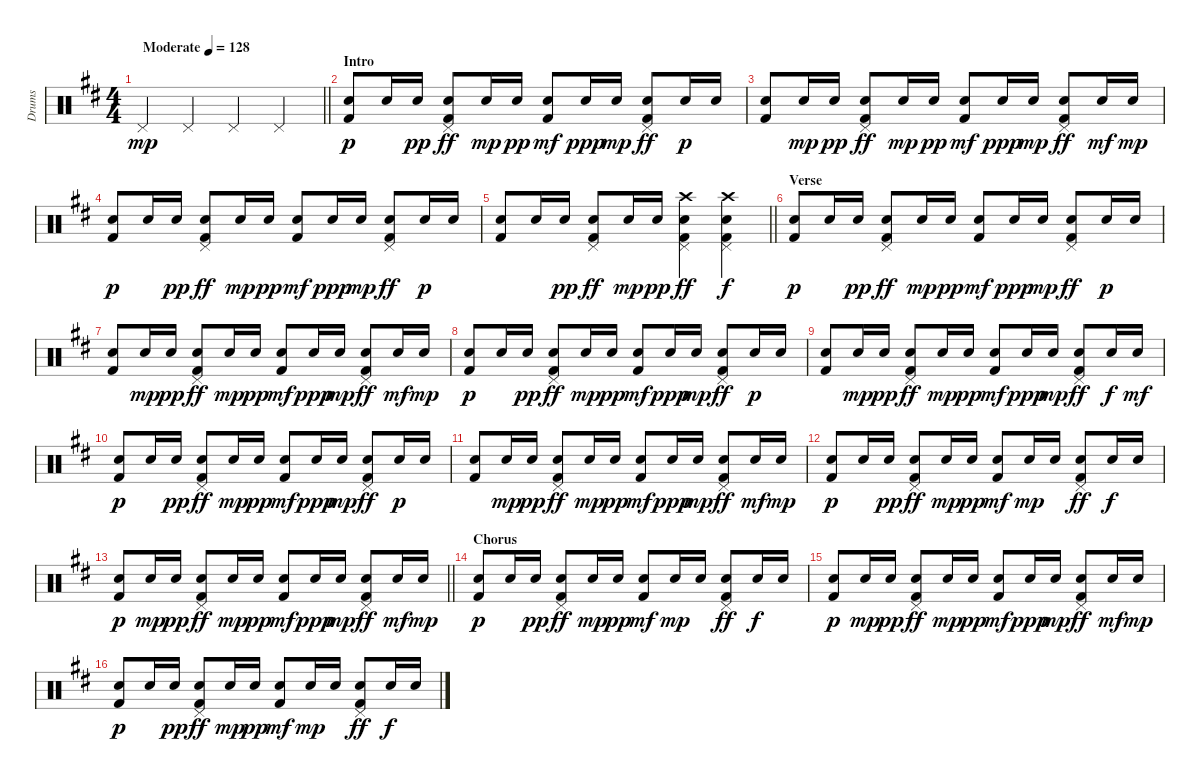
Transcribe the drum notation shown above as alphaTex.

\track ("Drums" "Drums") {instrument percussion}
\staff {score}
\articulation defaults
\ts (4 4)
\tempo (128 "Moderate")
\clef neutral
\barLineRight lightlight
\ks d "Pedal Hi-Hat (hit)".4{dy mp} "Pedal Hi-Hat (hit)".4 "Pedal Hi-Hat (hit)".4 "Pedal Hi-Hat (hit)".4
|
\section ("" "Intro")
("Kick (hit) 2" "Snare (hit) 2").8{dy p} "Snare (hit) 2".16 "Snare (hit) 2".16{dy pp} ("Kick (hit) 2" "Snare (hit) 2" "Pedal Hi-Hat (hit)").8{dy ff} "Snare (hit) 2".16{dy mp} "Snare (hit) 2".16{dy pp} ("Kick (hit) 2" "Snare (hit) 2").8{dy mf} "Snare (hit) 2".16{dy ppp} "Snare (hit) 2".16{dy mp} ("Kick (hit) 2" "Snare (hit) 2" "Pedal Hi-Hat (hit)").8{dy ff} "Snare (hit) 2".16{dy p} "Snare (hit) 2".16 |
("Kick (hit) 2" "Snare (hit) 2").8 "Snare (hit) 2".16{dy mp} "Snare (hit) 2".16{dy pp} ("Kick (hit) 2" "Snare (hit) 2" "Pedal Hi-Hat (hit)").8{dy ff} "Snare (hit) 2".16{dy mp} "Snare (hit) 2".16{dy pp} ("Kick (hit) 2" "Snare (hit) 2").8{dy mf} "Snare (hit) 2".16{dy ppp} "Snare (hit) 2".16{dy mp} ("Kick (hit) 2" "Snare (hit) 2" "Pedal Hi-Hat (hit)").8{dy ff} "Snare (hit) 2".16{dy mf} "Snare (hit) 2".16{dy mp} |
("Kick (hit) 2" "Snare (hit) 2").8{dy p} "Snare (hit) 2".16 "Snare (hit) 2".16{dy pp} ("Kick (hit) 2" "Snare (hit) 2" "Pedal Hi-Hat (hit)").8{dy ff} "Snare (hit) 2".16{dy mp} "Snare (hit) 2".16{dy pp} ("Kick (hit) 2" "Snare (hit) 2").8{dy mf} "Snare (hit) 2".16{dy ppp} "Snare (hit) 2".16{dy mp} ("Kick (hit) 2" "Snare (hit) 2" "Pedal Hi-Hat (hit)").8{dy ff} "Snare (hit) 2".16{dy p} "Snare (hit) 2".16 |
\barLineRight lightlight
("Kick (hit) 2" "Snare (hit) 2").8 "Snare (hit) 2".16 "Snare (hit) 2".16{dy pp} ("Kick (hit) 2" "Snare (hit) 2" "Pedal Hi-Hat (hit)").8{dy ff} "Snare (hit) 2".16{dy mp} "Snare (hit) 2".16{dy pp} ("Kick (hit) 2" "Snare (hit) 2" "Pedal Hi-Hat (hit)" "Crash high (hit)").4{dy ff} ("Kick (hit) 2" "Snare (hit) 2" "Pedal Hi-Hat (hit)" "Crash high (hit)").4{dy f} |
\section ("" "Verse")
("Kick (hit) 2" "Snare (hit) 2").8{dy p} "Snare (hit) 2".16 "Snare (hit) 2".16{dy pp} ("Kick (hit) 2" "Snare (hit) 2" "Pedal Hi-Hat (hit)").8{dy ff} "Snare (hit) 2".16{dy mp} "Snare (hit) 2".16{dy pp} ("Kick (hit) 2" "Snare (hit) 2").8{dy mf} "Snare (hit) 2".16{dy ppp} "Snare (hit) 2".16{dy mp} ("Kick (hit) 2" "Snare (hit) 2" "Pedal Hi-Hat (hit)").8{dy ff} "Snare (hit) 2".16{dy p} "Snare (hit) 2".16 |
("Kick (hit) 2" "Snare (hit) 2").8 "Snare (hit) 2".16{dy mp} "Snare (hit) 2".16{dy pp} ("Kick (hit) 2" "Snare (hit) 2" "Pedal Hi-Hat (hit)").8{dy ff} "Snare (hit) 2".16{dy mp} "Snare (hit) 2".16{dy pp} ("Kick (hit) 2" "Snare (hit) 2").8{dy mf} "Snare (hit) 2".16{dy ppp} "Snare (hit) 2".16{dy mp} ("Kick (hit) 2" "Snare (hit) 2" "Pedal Hi-Hat (hit)").8{dy ff} "Snare (hit) 2".16{dy mf} "Snare (hit) 2".16{dy mp} |
("Kick (hit) 2" "Snare (hit) 2").8{dy p} "Snare (hit) 2".16 "Snare (hit) 2".16{dy pp} ("Kick (hit) 2" "Snare (hit) 2" "Pedal Hi-Hat (hit)").8{dy ff} "Snare (hit) 2".16{dy mp} "Snare (hit) 2".16{dy pp} ("Kick (hit) 2" "Snare (hit) 2").8{dy mf} "Snare (hit) 2".16{dy ppp} "Snare (hit) 2".16{dy mp} ("Kick (hit) 2" "Snare (hit) 2" "Pedal Hi-Hat (hit)").8{dy ff} "Snare (hit) 2".16{dy p} "Snare (hit) 2".16 |
("Kick (hit) 2" "Snare (hit) 2").8 "Snare (hit) 2".16{dy mp} "Snare (hit) 2".16{dy pp} ("Kick (hit) 2" "Snare (hit) 2" "Pedal Hi-Hat (hit)").8{dy ff} "Snare (hit) 2".16{dy mp} "Snare (hit) 2".16{dy pp} ("Kick (hit) 2" "Snare (hit) 2").8{dy mf} "Snare (hit) 2".16{dy ppp} "Snare (hit) 2".16{dy mp} ("Kick (hit) 2" "Snare (hit) 2" "Pedal Hi-Hat (hit)").8{dy ff} "Snare (hit) 2".16{dy f} "Snare (hit) 2".16{dy mf} |
("Kick (hit) 2" "Snare (hit) 2").8{dy p} "Snare (hit) 2".16 "Snare (hit) 2".16{dy pp} ("Kick (hit) 2" "Snare (hit) 2" "Pedal Hi-Hat (hit)").8{dy ff} "Snare (hit) 2".16{dy mp} "Snare (hit) 2".16{dy pp} ("Kick (hit) 2" "Snare (hit) 2").8{dy mf} "Snare (hit) 2".16{dy ppp} "Snare (hit) 2".16{dy mp} ("Kick (hit) 2" "Snare (hit) 2" "Pedal Hi-Hat (hit)").8{dy ff} "Snare (hit) 2".16{dy p} "Snare (hit) 2".16 |
("Kick (hit) 2" "Snare (hit) 2").8 "Snare (hit) 2".16{dy mp} "Snare (hit) 2".16{dy pp} ("Kick (hit) 2" "Snare (hit) 2" "Pedal Hi-Hat (hit)").8{dy ff} "Snare (hit) 2".16{dy mp} "Snare (hit) 2".16{dy pp} ("Kick (hit) 2" "Snare (hit) 2").8{dy mf} "Snare (hit) 2".16{dy ppp} "Snare (hit) 2".16{dy mp} ("Kick (hit) 2" "Snare (hit) 2" "Pedal Hi-Hat (hit)").8{dy ff} "Snare (hit) 2".16{dy mf} "Snare (hit) 2".16{dy mp} |
("Kick (hit) 2" "Snare (hit) 2").8{dy p} "Snare (hit) 2".16 "Snare (hit) 2".16{dy pp} ("Kick (hit) 2" "Snare (hit) 2" "Pedal Hi-Hat (hit)").8{dy ff} "Snare (hit) 2".16{dy mp} "Snare (hit) 2".16{dy pp} ("Kick (hit) 2" "Snare (hit) 2").8{dy mf} "Snare (hit) 2".16{dy mp} "Snare (hit) 2".16 ("Kick (hit) 2" "Snare (hit) 2" "Pedal Hi-Hat (hit)").8{dy ff} "Snare (hit) 2".16{dy f} "Snare (hit) 2".16 |
\barLineRight lightlight
("Kick (hit) 2" "Snare (hit) 2").8{dy p} "Snare (hit) 2".16{dy mp} "Snare (hit) 2".16{dy pp} ("Kick (hit) 2" "Snare (hit) 2" "Pedal Hi-Hat (hit)").8{dy ff} "Snare (hit) 2".16{dy mp} "Snare (hit) 2".16{dy pp} ("Kick (hit) 2" "Snare (hit) 2").8{dy mf} "Snare (hit) 2".16{dy ppp} "Snare (hit) 2".16{dy mp} ("Kick (hit) 2" "Snare (hit) 2" "Pedal Hi-Hat (hit)").8{dy ff} "Snare (hit) 2".16{dy mf} "Snare (hit) 2".16{dy mp} |
\section ("" "Chorus")
("Kick (hit) 2" "Snare (hit) 2").8{dy p} "Snare (hit) 2".16 "Snare (hit) 2".16{dy pp} ("Kick (hit) 2" "Snare (hit) 2" "Pedal Hi-Hat (hit)").8{dy ff} "Snare (hit) 2".16{dy mp} "Snare (hit) 2".16{dy pp} ("Kick (hit) 2" "Snare (hit) 2").8{dy mf} "Snare (hit) 2".16{dy mp} "Snare (hit) 2".16 ("Kick (hit) 2" "Snare (hit) 2" "Pedal Hi-Hat (hit)").8{dy ff} "Snare (hit) 2".16{dy f} "Snare (hit) 2".16 |
("Kick (hit) 2" "Snare (hit) 2").8{dy p} "Snare (hit) 2".16{dy mp} "Snare (hit) 2".16{dy pp} ("Kick (hit) 2" "Snare (hit) 2" "Pedal Hi-Hat (hit)").8{dy ff} "Snare (hit) 2".16{dy mp} "Snare (hit) 2".16{dy pp} ("Kick (hit) 2" "Snare (hit) 2").8{dy mf} "Snare (hit) 2".16{dy ppp} "Snare (hit) 2".16{dy mp} ("Kick (hit) 2" "Snare (hit) 2" "Pedal Hi-Hat (hit)").8{dy ff} "Snare (hit) 2".16{dy mf} "Snare (hit) 2".16{dy mp} |
("Kick (hit) 2" "Snare (hit) 2").8{dy p} "Snare (hit) 2".16 "Snare (hit) 2".16{dy pp} ("Kick (hit) 2" "Snare (hit) 2" "Pedal Hi-Hat (hit)").8{dy ff} "Snare (hit) 2".16{dy mp} "Snare (hit) 2".16{dy pp} ("Kick (hit) 2" "Snare (hit) 2").8{dy mf} "Snare (hit) 2".16{dy mp} "Snare (hit) 2".16 ("Kick (hit) 2" "Snare (hit) 2" "Pedal Hi-Hat (hit)").8{dy ff} "Snare (hit) 2".16{dy f} "Snare (hit) 2".16
